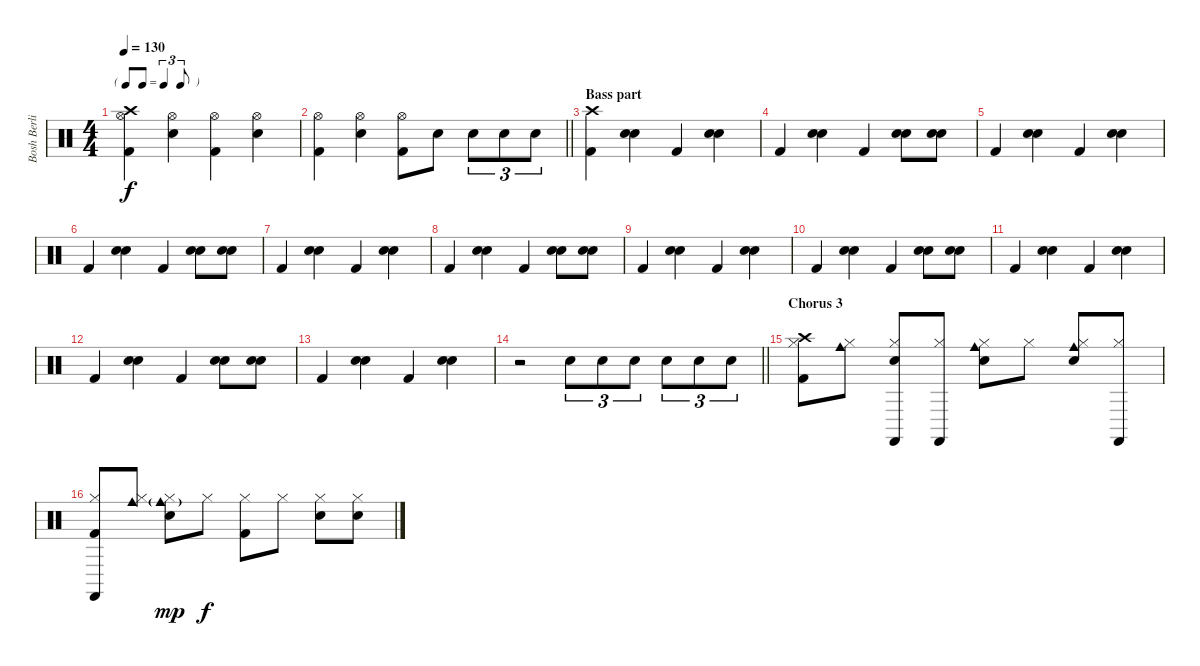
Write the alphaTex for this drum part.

\track ("Bosh Berlin" "Bosh Berli") {instrument percussion}
\staff {score}
\articulation defaults
\ts (4 4)
\tf triplet8th
\tempo 130
\clef neutral
\ks c
("Crash high (hit)" "Hi-Hat (open)" "Kick (hit) 2").4{dy f} ("Hi-Hat (open)" "Snare (hit) 2").4 ("Hi-Hat (open)" "Kick (hit) 2").4 ("Hi-Hat (open)" "Snare (hit) 2").4 |
\barLineRight lightlight
("Hi-Hat (open)" "Kick (hit) 2").4 ("Hi-Hat (open)" "Snare (hit) 2").4 ("Hi-Hat (open)" "Kick (hit) 2").8 "Snare (hit) 2".8 "Snare (hit) 2".8{tu (3 2)} "Snare (hit) 2".8{tu (3 2)} "Snare (hit) 2".8{tu (3 2)} |
\section ("" "Bass part")
("Crash high (hit)" "Kick (hit) 2").4 ("Hand Clap (hit)" "Snare (hit) 2").4 "Kick (hit) 2".4 ("Hand Clap (hit)" "Snare (hit) 2").4 |
"Kick (hit) 2".4 ("Hand Clap (hit)" "Snare (hit) 2").4 "Kick (hit) 2".4 ("Hand Clap (hit)" "Snare (hit) 2").8 ("Hand Clap (hit)" "Snare (hit) 2").8 |
"Kick (hit) 2".4 ("Hand Clap (hit)" "Snare (hit) 2").4 "Kick (hit) 2".4 ("Hand Clap (hit)" "Snare (hit) 2").4 |
"Kick (hit) 2".4 ("Hand Clap (hit)" "Snare (hit) 2").4 "Kick (hit) 2".4 ("Hand Clap (hit)" "Snare (hit) 2").8 ("Hand Clap (hit)" "Snare (hit) 2").8 |
"Kick (hit) 2".4 ("Hand Clap (hit)" "Snare (hit) 2").4 "Kick (hit) 2".4 ("Hand Clap (hit)" "Snare (hit) 2").4 |
"Kick (hit) 2".4 ("Hand Clap (hit)" "Snare (hit) 2").4 "Kick (hit) 2".4 ("Hand Clap (hit)" "Snare (hit) 2").8 ("Hand Clap (hit)" "Snare (hit) 2").8 |
"Kick (hit) 2".4 ("Hand Clap (hit)" "Snare (hit) 2").4 "Kick (hit) 2".4 ("Hand Clap (hit)" "Snare (hit) 2").4 |
"Kick (hit) 2".4 ("Hand Clap (hit)" "Snare (hit) 2").4 "Kick (hit) 2".4 ("Hand Clap (hit)" "Snare (hit) 2").8 ("Hand Clap (hit)" "Snare (hit) 2").8 |
"Kick (hit) 2".4 ("Hand Clap (hit)" "Snare (hit) 2").4 "Kick (hit) 2".4 ("Hand Clap (hit)" "Snare (hit) 2").4 |
"Kick (hit) 2".4 ("Hand Clap (hit)" "Snare (hit) 2").4 "Kick (hit) 2".4 ("Hand Clap (hit)" "Snare (hit) 2").8 ("Hand Clap (hit)" "Snare (hit) 2").8 |
"Kick (hit) 2".4 ("Hand Clap (hit)" "Snare (hit) 2").4 "Kick (hit) 2".4 ("Hand Clap (hit)" "Snare (hit) 2").4 |
\barLineRight lightlight
r.2 "Snare (hit) 2".8{tu (3 2)} "Snare (hit) 2".8{tu (3 2)} "Snare (hit) 2".8{tu (3 2)} "Snare (hit) 2".8{tu (3 2)} "Snare (hit) 2".8{tu (3 2)} "Snare (hit) 2".8{tu (3 2)} |
\section ("" "Chorus 3")
("Crash high (hit)" "Hi-Hat (closed)" "Kick (hit) 2").8 ("Cowbell medium (hit)" "Hi-Hat (closed)").8 ("Castanets (hit)" "Hi-Hat (closed)" "Snare (hit) 2").8 ("Castanets (hit)" "Hi-Hat (closed)").8 ("Cowbell medium (hit)" "Hi-Hat (closed)" "Snare (hit) 2").8 "Hi-Hat (closed)".8 ("Cowbell medium (hit)" "Hi-Hat (closed)" "Snare (hit) 2").8 ("Castanets (hit)" "Hi-Hat (closed)").8 |
("Hi-Hat (closed)" "Castanets (hit)" "Kick (hit) 2").8 ("Hi-Hat (closed)" "Cowbell medium (hit)").8 ("Hi-Hat (closed)" "Cowbell medium (hit)"{g} "Snare (hit) 2").8{dy mp} "Hi-Hat (closed)".8{dy f} ("Hi-Hat (closed)" "Kick (hit) 2").8 "Hi-Hat (closed)".8 ("Hi-Hat (closed)" "Snare (hit) 2").8 ("Hi-Hat (closed)" "Snare (hit) 2").8
